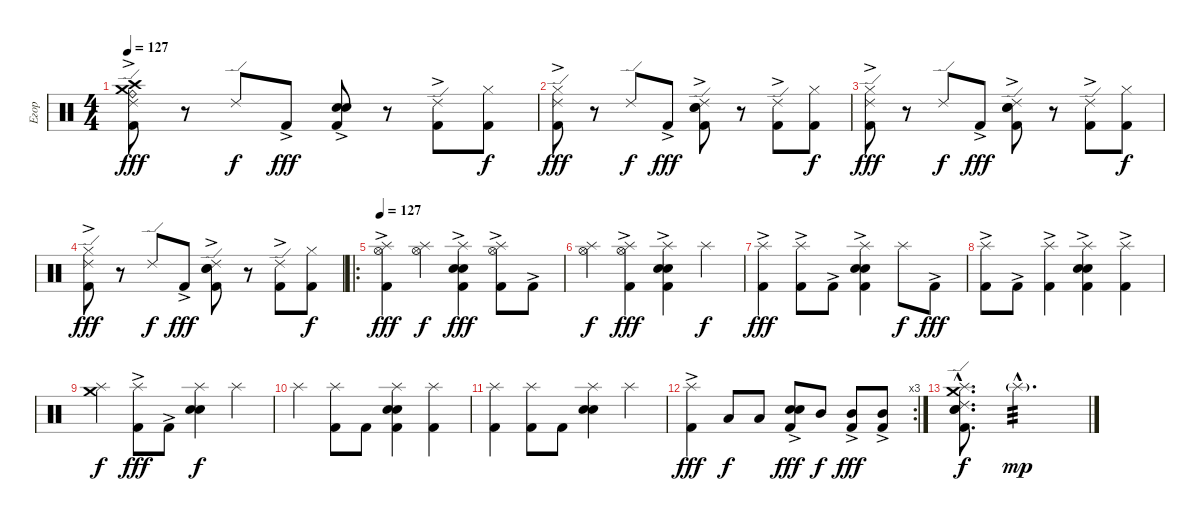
\track ("Егор" "Егор") {instrument percussion}
\staff {score}
\articulation defaults
\ts (4 4)
\tempo 127
\clef neutral
\ks c
("Crash medium (hit)" "Crash high (hit)" "Ride (bell)" "Ride (edge) 2" "Kick (hit) 2"{ac}).8{dy fff} r.8 "Ride (edge) 2".8{dy f} "Kick (hit) 2"{ac}.8{dy fff} ("Electric Snare (hit)" "Snare (hit) 2" "Kick (hit) 2"{ac}).8 r.8 ("Ride (edge) 2" "Kick (hit) 2"{ac}).8 ("Hi-Hat (closed)" "Kick (hit) 2").8{dy f} |
("Ride (edge) 2" "Hi-Hat (closed)" "Kick (hit) 2"{ac}).8{dy fff} r.8 "Ride (edge) 2".8{dy f} "Kick (hit) 2"{ac}.8{dy fff} ("Ride (edge) 2" "Electric Snare (hit)" "Snare (hit) 2" "Kick (hit) 2"{ac}).8 r.8 ("Ride (edge) 2" "Kick (hit) 2"{ac}).8 ("Hi-Hat (closed)" "Kick (hit) 2").8{dy f} |
("Ride (edge) 2" "Hi-Hat (closed)" "Kick (hit) 2"{ac}).8{dy fff} r.8 "Ride (edge) 2".8{dy f} "Kick (hit) 2"{ac}.8{dy fff} ("Ride (edge) 2" "Electric Snare (hit)" "Snare (hit) 2" "Kick (hit) 2"{ac}).8 r.8 ("Ride (edge) 2" "Kick (hit) 2"{ac}).8 ("Hi-Hat (closed)" "Kick (hit) 2").8{dy f} |
("Ride (edge) 2" "Hi-Hat (closed)" "Kick (hit) 2"{ac}).8{dy fff} r.8 "Ride (edge) 2".8{dy f} "Kick (hit) 2"{ac}.8{dy fff} ("Ride (edge) 2" "Electric Snare (hit)" "Snare (hit) 2" "Kick (hit) 2"{ac}).8 r.8 ("Ride (edge) 2" "Kick (hit) 2"{ac}).8 ("Hi-Hat (closed)" "Kick (hit) 2").8{dy f} |
\ro
\tempo 130
\tempo 127
("Splash (hit)" "Hi-Hat (open)" "Kick (hit) 2"{ac}).4{dy fff} ("Splash (hit)" "Hi-Hat (open)").4{dy f} ("Splash (hit)" "Snare (hit) 2" "Electric Snare (hit)" "Kick (hit) 2"{ac}).4{dy fff} ("Splash (hit)" "Hi-Hat (open)" "Kick (hit) 2"{ac}).8 "Kick (hit) 2"{ac}.8 |
("Splash (hit)" "Hi-Hat (open)").4{dy f} ("Splash (hit)" "Hi-Hat (open)" "Kick (hit) 2"{ac}).4{dy fff} ("Splash (hit)" "Snare (hit) 2" "Electric Snare (hit)" "Kick (hit) 2"{ac}).4 "Splash (hit)".4{dy f} |
("Splash (hit)" "Kick (hit) 2"{ac}).4{dy fff} ("Splash (hit)" "Kick (hit) 2"{ac}).8 "Kick (hit) 2"{ac}.8 ("Splash (hit)" "Snare (hit) 2" "Electric Snare (hit)" "Kick (hit) 2"{ac}).4 "Splash (hit)".8{dy f} "Kick (hit) 2"{ac}.8{dy fff} |
("Splash (hit)" "Kick (hit) 2"{ac}).8 "Kick (hit) 2"{ac}.8 ("Splash (hit)" "Kick (hit) 2"{ac}).4 ("Splash (hit)" "Snare (hit) 2" "Electric Snare (hit)" "Kick (hit) 2"{ac}).4 ("Splash (hit)" "Kick (hit) 2"{ac}).4 |
("Splash (hit)" "Crash medium (hit)").4{dy f} ("Splash (hit)" "Kick (hit) 2"{ac}).8{dy fff} "Kick (hit) 2"{ac}.8 ("Splash (hit)" "Snare (hit) 2" "Electric Snare (hit)").4{dy f} "Splash (hit)".4 |
"Splash (hit)".4 ("Splash (hit)" "Kick (hit) 2").8 "Kick (hit) 2".8 ("Splash (hit)" "Snare (hit) 2" "Electric Snare (hit)" "Kick (hit) 2").4 ("Splash (hit)" "Kick (hit) 2").4 |
("Splash (hit)" "Kick (hit) 2").4 ("Splash (hit)" "Kick (hit) 2").8 "Kick (hit) 2".8 ("Splash (hit)" "Snare (hit) 2" "Electric Snare (hit)").4 "Splash (hit)".4 |
\rc 3
("Splash (hit)" "Kick (hit) 2"{ac}).4{dy fff} "Low Tom (hit)".8{dy f} "Low Tom (hit)".8 ("Electric Snare (hit)" "Snare (hit) 2" "Kick (hit) 2"{ac}).8{dy fff} "Mid Tom (hit)".8{dy f} ("Mid Tom (hit)" "Kick (hit) 2"{ac}).8{dy fff} ("Mid Tom (hit)" "Kick (hit) 2"{ac}).8 |
("Ride (edge) 2"{hac} "Splash (hit)"{hac} "Snare (hit) 2"{hac} "Electric Snare (hit)"{hac} "Kick (hit) 2"{hac} "Crash medium (hit)"{hac}).8{d dy f} "Splash (hit)"{g hac}.2{d tp 3 dy mp}
